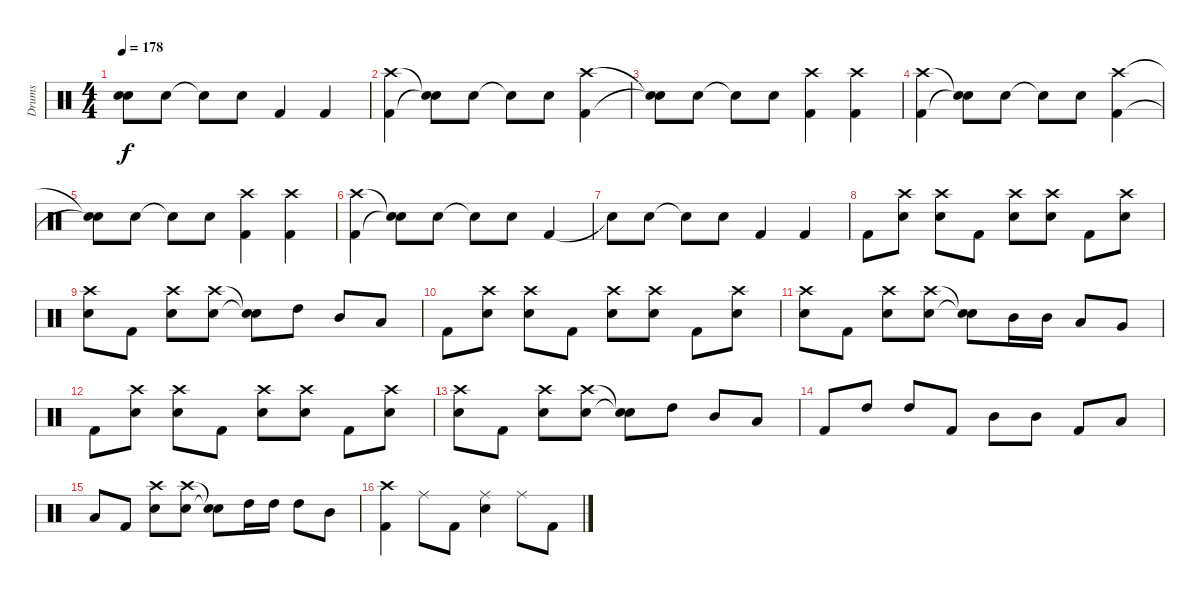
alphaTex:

\track ("Drums" "Drums") {instrument percussion}
\staff {score}
\articulation defaults
\ts (4 4)
\tempo 178
\clef neutral
\ks c
("Snare (hit)"{t} "Snare (hit)"{t}).8{dy f} "Electric Snare (hit)".8 "Snare (hit)"{t}.8 "Electric Snare (hit)".8 "Kick (hit) 2".4 "Kick (hit) 2".4 |
("Crash high (hit)" "Kick (hit) 2").4 ("Snare (hit)"{t} "Snare (hit)"{t}).8 "Electric Snare (hit)".8 "Snare (hit)"{t}.8 "Electric Snare (hit)".8 ("Crash high (hit)" "Kick (hit) 2").4 |
("Snare (hit)"{t} "Snare (hit)"{t}).8 "Electric Snare (hit)".8 "Snare (hit)"{t}.8 "Electric Snare (hit)".8 ("Crash high (hit)" "Kick (hit) 2").4 ("Crash high (hit)" "Kick (hit) 2").4 |
("Crash high (hit)" "Kick (hit) 2").4 ("Snare (hit)"{t} "Snare (hit)"{t}).8 "Electric Snare (hit)".8 "Snare (hit)"{t}.8 "Electric Snare (hit)".8 ("Crash high (hit)" "Kick (hit) 2").4 |
("Snare (hit)"{t} "Snare (hit)"{t}).8 "Electric Snare (hit)".8 "Snare (hit)"{t}.8 "Electric Snare (hit)".8 ("Crash high (hit)" "Kick (hit) 2").4 ("Crash high (hit)" "Kick (hit) 2").4 |
("Crash high (hit)" "Kick (hit) 2").4 ("Snare (hit)"{t} "Snare (hit)"{t}).8 "Electric Snare (hit)".8 "Snare (hit)"{t}.8 "Electric Snare (hit)".8 "Kick (hit) 2".4 |
"Snare (hit)"{t}.8 "Electric Snare (hit)".8 "Snare (hit)"{t}.8 "Electric Snare (hit)".8 "Kick (hit) 2".4 "Kick (hit) 2".4 |
"Kick (hit) 2".8 ("Crash high (hit)" "Electric Snare (hit)").8 ("Crash high (hit)" "Electric Snare (hit)").8 "Kick (hit) 2".8 ("Crash high (hit)" "Electric Snare (hit)").8 ("Crash high (hit)" "Electric Snare (hit)").8 "Kick (hit) 2".8 ("Crash high (hit)" "Electric Snare (hit)").8 |
("Crash high (hit)" "Electric Snare (hit)").8 "Kick (hit) 2".8 ("Crash high (hit)" "Electric Snare (hit)").8 ("Crash high (hit)" "Electric Snare (hit)").8 ("Snare (hit)"{t} "Snare (hit)"{t}).8 "High Tom (hit)".8 "Mid Tom (hit)".8 "Low Tom (hit)".8 |
"Kick (hit) 2".8 ("Crash high (hit)" "Electric Snare (hit)").8 ("Crash high (hit)" "Electric Snare (hit)").8 "Kick (hit) 2".8 ("Crash high (hit)" "Electric Snare (hit)").8 ("Crash high (hit)" "Electric Snare (hit)").8 "Kick (hit) 2".8 ("Crash high (hit)" "Electric Snare (hit)").8 |
("Crash high (hit)" "Electric Snare (hit)").8 "Kick (hit) 2".8 ("Crash high (hit)" "Electric Snare (hit)").8 ("Crash high (hit)" "Electric Snare (hit)").8 ("Snare (hit)"{t} "Snare (hit)"{t}).8 "Mid Tom (hit)".16 "Mid Tom (hit)".16 "Low Tom (hit)".8 "Very Low Tom (hit)".8 |
"Kick (hit) 2".8 ("Crash high (hit)" "Electric Snare (hit)").8 ("Crash high (hit)" "Electric Snare (hit)").8 "Kick (hit) 2".8 ("Crash high (hit)" "Electric Snare (hit)").8 ("Crash high (hit)" "Electric Snare (hit)").8 "Kick (hit) 2".8 ("Crash high (hit)" "Electric Snare (hit)").8 |
("Crash high (hit)" "Electric Snare (hit)").8 "Kick (hit) 2".8 ("Crash high (hit)" "Electric Snare (hit)").8 ("Crash high (hit)" "Electric Snare (hit)").8 ("Snare (hit)"{t} "Snare (hit)"{t}).8 "High Tom (hit)".8 "Mid Tom (hit)".8 "Low Tom (hit)".8 |
"Kick (hit) 2".8 "High Tom (hit)".8 "High Tom (hit)".8 "Kick (hit) 2".8 "Mid Tom (hit)".8 "Mid Tom (hit)".8 "Kick (hit) 2".8 "Low Tom (hit)".8 |
"Low Tom (hit)".8 "Kick (hit) 2".8 ("Crash high (hit)" "Electric Snare (hit)").8 ("Crash high (hit)" "Electric Snare (hit)").8 ("Snare (hit)"{t} "Snare (hit)"{t}).8 "High Tom (hit)".16 "High Tom (hit)".16 "High Tom (hit)".8 "Mid Tom (hit)".8 |
("Crash high (hit)" "Kick (hit) 2").4 "Ride (middle)".8 "Kick (hit) 2".8 ("Ride (middle)" "Electric Snare (hit)").4 "Ride (middle)".8 "Kick (hit) 2".8
